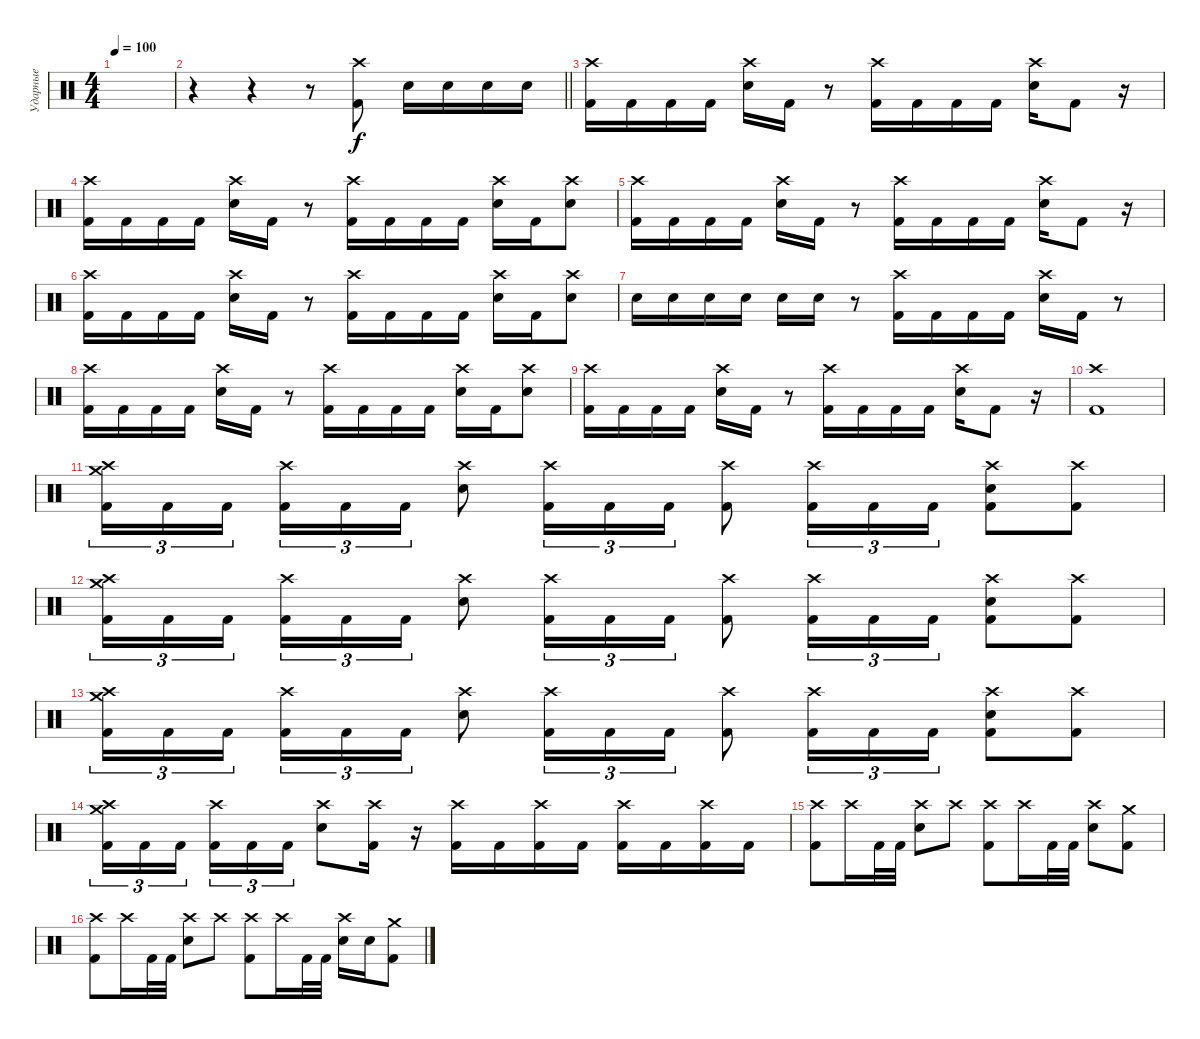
\track ("Ударные" "Ударные") {instrument percussion}
\staff {score}
\articulation defaults
\ts (4 4)
\tempo 100
\clef neutral
\ks c
|
\barLineRight lightlight
r.4 r.4 r.8 ("Crash high (hit)" "Kick (hit) 2").8 "Snare (hit) 2".16 "Snare (hit) 2".16 "Snare (hit) 2".16 "Snare (hit) 2".16 |
("Crash high (hit)" "Kick (hit) 2").16 "Kick (hit) 2".16 "Kick (hit) 2".16 "Kick (hit) 2".16 ("Crash high (hit)" "Snare (hit) 2").16 "Kick (hit) 2".16 r.8 ("Crash high (hit)" "Kick (hit) 2").16 "Kick (hit) 2".16 "Kick (hit) 2".16 "Kick (hit) 2".16 ("Snare (hit) 2" "Crash high (hit)").16 "Kick (hit) 2".8 r.16 |
("Crash high (hit)" "Kick (hit) 2").16 "Kick (hit) 2".16 "Kick (hit) 2".16 "Kick (hit) 2".16 ("Crash high (hit)" "Snare (hit) 2").16 "Kick (hit) 2".16 r.8 ("Crash high (hit)" "Kick (hit) 2").16 "Kick (hit) 2".16 "Kick (hit) 2".16 "Kick (hit) 2".16 ("Snare (hit) 2" "Crash high (hit)").16 "Kick (hit) 2".16 ("Crash high (hit)" "Snare (hit) 2").8 |
("Crash high (hit)" "Kick (hit) 2").16 "Kick (hit) 2".16 "Kick (hit) 2".16 "Kick (hit) 2".16 ("Crash high (hit)" "Snare (hit) 2").16 "Kick (hit) 2".16 r.8 ("Crash high (hit)" "Kick (hit) 2").16 "Kick (hit) 2".16 "Kick (hit) 2".16 "Kick (hit) 2".16 ("Snare (hit) 2" "Crash high (hit)").16 "Kick (hit) 2".8 r.16 |
("Crash high (hit)" "Kick (hit) 2").16 "Kick (hit) 2".16 "Kick (hit) 2".16 "Kick (hit) 2".16 ("Crash high (hit)" "Snare (hit) 2").16 "Kick (hit) 2".16 r.8 ("Crash high (hit)" "Kick (hit) 2").16 "Kick (hit) 2".16 "Kick (hit) 2".16 "Kick (hit) 2".16 ("Snare (hit) 2" "Crash high (hit)").16 "Kick (hit) 2".16 ("Crash high (hit)" "Snare (hit) 2").8 |
"Snare (hit) 2".16 "Snare (hit) 2".16 "Snare (hit) 2".16 "Snare (hit) 2".16 "Snare (hit) 2".16 "Snare (hit) 2".16 r.8 ("Crash high (hit)" "Kick (hit) 2").16 "Kick (hit) 2".16 "Kick (hit) 2".16 "Kick (hit) 2".16 ("Crash high (hit)" "Snare (hit) 2").16 "Kick (hit) 2".16 r.8 |
("Crash high (hit)" "Kick (hit) 2").16 "Kick (hit) 2".16 "Kick (hit) 2".16 "Kick (hit) 2".16 ("Crash high (hit)" "Snare (hit) 2").16 "Kick (hit) 2".16 r.8 ("Crash high (hit)" "Kick (hit) 2").16 "Kick (hit) 2".16 "Kick (hit) 2".16 "Kick (hit) 2".16 ("Snare (hit) 2" "Crash high (hit)").16 "Kick (hit) 2".16 ("Crash high (hit)" "Snare (hit) 2").8 |
("Crash high (hit)" "Kick (hit) 2").16 "Kick (hit) 2".16 "Kick (hit) 2".16 "Kick (hit) 2".16 ("Crash high (hit)" "Snare (hit) 2").16 "Kick (hit) 2".16 r.8 ("Crash high (hit)" "Kick (hit) 2").16 "Kick (hit) 2".16 "Kick (hit) 2".16 "Kick (hit) 2".16 ("Snare (hit) 2" "Crash high (hit)").16 "Kick (hit) 2".8 r.16 |
("Crash high (hit)" "Kick (hit) 2").1 |
("Crash high (hit)" "Kick (hit) 2" "Crash medium (hit)").16{tu (3 2)} "Kick (hit) 2".16{tu (3 2)} "Kick (hit) 2".16{tu (3 2) beam splitsecondary} ("Crash high (hit)" "Kick (hit) 2").16{tu (3 2)} "Kick (hit) 2".16{tu (3 2)} "Kick (hit) 2".16{tu (3 2)} ("Crash high (hit)" "Snare (hit) 2").8 ("Crash high (hit)" "Kick (hit) 2").16{tu (3 2)} "Kick (hit) 2".16{tu (3 2)} "Kick (hit) 2".16{tu (3 2)} ("Crash high (hit)" "Kick (hit) 2").8 ("Crash high (hit)" "Kick (hit) 2").16{tu (3 2)} "Kick (hit) 2".16{tu (3 2)} "Kick (hit) 2".16{tu (3 2)} ("Crash high (hit)" "Kick (hit) 2" "Snare (hit) 2").8 ("Crash high (hit)" "Kick (hit) 2").8 |
("Crash high (hit)" "Kick (hit) 2" "Crash medium (hit)").16{tu (3 2)} "Kick (hit) 2".16{tu (3 2)} "Kick (hit) 2".16{tu (3 2) beam splitsecondary} ("Crash high (hit)" "Kick (hit) 2").16{tu (3 2)} "Kick (hit) 2".16{tu (3 2)} "Kick (hit) 2".16{tu (3 2)} ("Crash high (hit)" "Snare (hit) 2").8 ("Crash high (hit)" "Kick (hit) 2").16{tu (3 2)} "Kick (hit) 2".16{tu (3 2)} "Kick (hit) 2".16{tu (3 2)} ("Crash high (hit)" "Kick (hit) 2").8 ("Crash high (hit)" "Kick (hit) 2").16{tu (3 2)} "Kick (hit) 2".16{tu (3 2)} "Kick (hit) 2".16{tu (3 2)} ("Crash high (hit)" "Kick (hit) 2" "Snare (hit) 2").8 ("Crash high (hit)" "Kick (hit) 2").8 |
("Crash high (hit)" "Kick (hit) 2" "Crash medium (hit)").16{tu (3 2)} "Kick (hit) 2".16{tu (3 2)} "Kick (hit) 2".16{tu (3 2) beam splitsecondary} ("Crash high (hit)" "Kick (hit) 2").16{tu (3 2)} "Kick (hit) 2".16{tu (3 2)} "Kick (hit) 2".16{tu (3 2)} ("Crash high (hit)" "Snare (hit) 2").8 ("Crash high (hit)" "Kick (hit) 2").16{tu (3 2)} "Kick (hit) 2".16{tu (3 2)} "Kick (hit) 2".16{tu (3 2)} ("Crash high (hit)" "Kick (hit) 2").8 ("Crash high (hit)" "Kick (hit) 2").16{tu (3 2)} "Kick (hit) 2".16{tu (3 2)} "Kick (hit) 2".16{tu (3 2)} ("Crash high (hit)" "Kick (hit) 2" "Snare (hit) 2").8 ("Crash high (hit)" "Kick (hit) 2").8 |
("Crash high (hit)" "Kick (hit) 2" "Crash medium (hit)").16{tu (3 2)} "Kick (hit) 2".16{tu (3 2)} "Kick (hit) 2".16{tu (3 2) beam splitsecondary} ("Crash high (hit)" "Kick (hit) 2").16{tu (3 2)} "Kick (hit) 2".16{tu (3 2)} "Kick (hit) 2".16{tu (3 2)} ("Crash high (hit)" "Snare (hit) 2").8 ("Kick (hit) 2" "Crash high (hit)").16 r.16 ("Kick (hit) 2" "Crash high (hit)").16 "Kick (hit) 2".16 ("Kick (hit) 2" "Crash high (hit)").16 "Kick (hit) 2".16 ("Kick (hit) 2" "Crash high (hit)").16 "Kick (hit) 2".16 ("Kick (hit) 2" "Crash high (hit)").16 "Kick (hit) 2".16 |
("Crash high (hit)" "Kick (hit) 2").8 "Crash high (hit)".16 "Kick (hit) 2".32 "Kick (hit) 2".32 ("Crash high (hit)" "Snare (hit) 2").8 "Crash high (hit)".8 ("Crash high (hit)" "Kick (hit) 2").8 "Crash high (hit)".16 "Kick (hit) 2".32 "Kick (hit) 2".32 ("Crash high (hit)" "Snare (hit) 2").8 ("Crash medium (hit)" "Kick (hit) 2").8 |
("Crash high (hit)" "Kick (hit) 2").8 "Crash high (hit)".16 "Kick (hit) 2".32 "Kick (hit) 2".32 ("Crash high (hit)" "Snare (hit) 2").8 "Crash high (hit)".8 ("Crash high (hit)" "Kick (hit) 2").8 "Crash high (hit)".16 "Kick (hit) 2".32 "Kick (hit) 2".32 ("Crash high (hit)" "Snare (hit) 2").16 "Snare (hit) 2".16 ("Crash medium (hit)" "Kick (hit) 2").8
